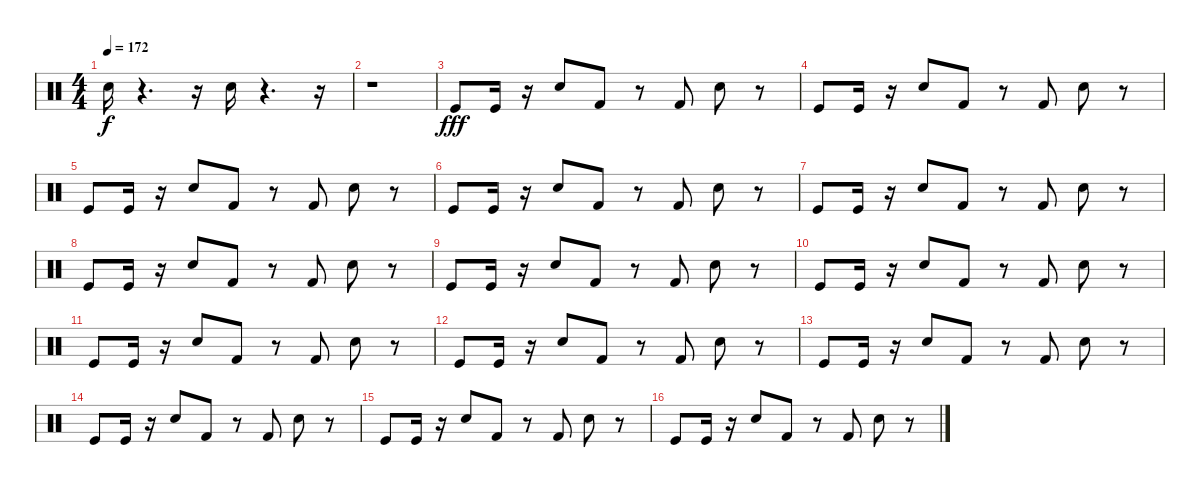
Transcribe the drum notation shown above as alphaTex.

\track "" {instrument percussion}
\staff {score}
\articulation defaults
\ts (4 4)
\tempo 172
\clef neutral
\ks c "Snare (hit) 2".16{dy f}
r.4{d} r.16 "Snare (hit) 2".16 r.4{d} r.16 |
r.1 |
"Kick (hit)".8{dy fff} "Kick (hit)".16 r.16 "Snare (hit) 2".8 "Kick (hit) 2".8 r.8 "Kick (hit) 2".8 "Snare (hit) 2".8 r.8 |
"Kick (hit)".8 "Kick (hit)".16 r.16 "Snare (hit) 2".8 "Kick (hit) 2".8 r.8 "Kick (hit) 2".8 "Snare (hit) 2".8 r.8 |
"Kick (hit)".8 "Kick (hit)".16 r.16 "Snare (hit) 2".8 "Kick (hit) 2".8 r.8 "Kick (hit) 2".8 "Snare (hit) 2".8 r.8 |
"Kick (hit)".8 "Kick (hit)".16 r.16 "Snare (hit) 2".8 "Kick (hit) 2".8 r.8 "Kick (hit) 2".8 "Snare (hit) 2".8 r.8 |
"Kick (hit)".8 "Kick (hit)".16 r.16 "Snare (hit) 2".8 "Kick (hit) 2".8 r.8 "Kick (hit) 2".8 "Snare (hit) 2".8 r.8 |
"Kick (hit)".8 "Kick (hit)".16 r.16 "Snare (hit) 2".8 "Kick (hit) 2".8 r.8 "Kick (hit) 2".8 "Snare (hit) 2".8 r.8 |
"Kick (hit)".8 "Kick (hit)".16 r.16 "Snare (hit) 2".8 "Kick (hit) 2".8 r.8 "Kick (hit) 2".8 "Snare (hit) 2".8 r.8 |
"Kick (hit)".8 "Kick (hit)".16 r.16 "Snare (hit) 2".8 "Kick (hit) 2".8 r.8 "Kick (hit) 2".8 "Snare (hit) 2".8 r.8 |
"Kick (hit)".8 "Kick (hit)".16 r.16 "Snare (hit) 2".8 "Kick (hit) 2".8 r.8 "Kick (hit) 2".8 "Snare (hit) 2".8 r.8 |
"Kick (hit)".8 "Kick (hit)".16 r.16 "Snare (hit) 2".8 "Kick (hit) 2".8 r.8 "Kick (hit) 2".8 "Snare (hit) 2".8 r.8 |
"Kick (hit)".8 "Kick (hit)".16 r.16 "Snare (hit) 2".8 "Kick (hit) 2".8 r.8 "Kick (hit) 2".8 "Snare (hit) 2".8 r.8 |
"Kick (hit)".8 "Kick (hit)".16 r.16 "Snare (hit) 2".8 "Kick (hit) 2".8 r.8 "Kick (hit) 2".8 "Snare (hit) 2".8 r.8 |
"Kick (hit)".8 "Kick (hit)".16 r.16 "Snare (hit) 2".8 "Kick (hit) 2".8 r.8 "Kick (hit) 2".8 "Snare (hit) 2".8 r.8 |
"Kick (hit)".8 "Kick (hit)".16 r.16 "Snare (hit) 2".8 "Kick (hit) 2".8 r.8 "Kick (hit) 2".8 "Snare (hit) 2".8 r.8
